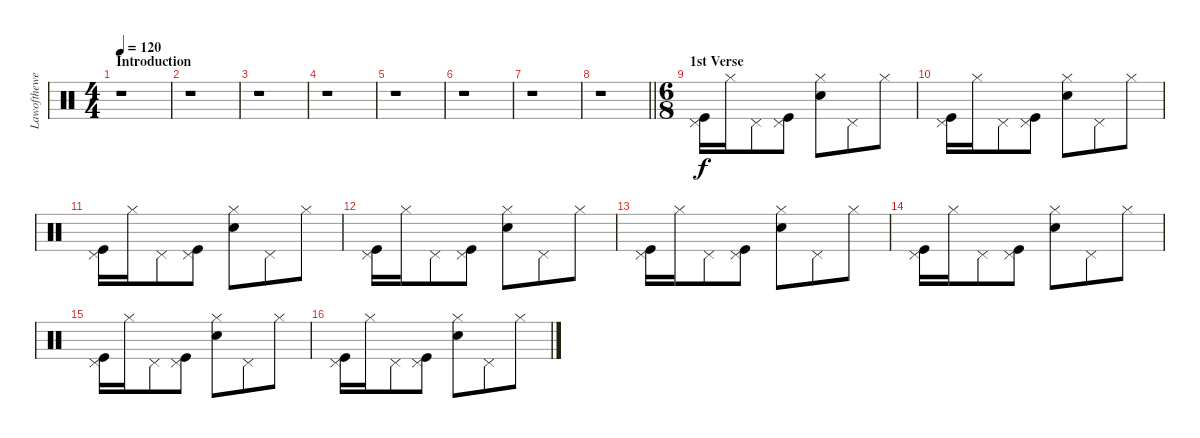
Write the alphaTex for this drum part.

\track ("Lawofthewest (drums)" "Lawofthewe") {instrument percussion}
\staff {score}
\articulation defaults
\ts (4 4)
\section ("" "Introduction")
\tempo 120
\clef neutral
\ks c
r.1{dy f} |
r.1 |
r.1 |
r.1 |
r.1 |
r.1 |
r.1 |
\barLineRight lightlight
r.1 |
\ts (6 8)
\section ("" "1st Verse")
("Pedal Hi-Hat (hit)" "Kick (hit)").16 "Hi-Hat (closed)".16 "Pedal Hi-Hat (hit)".8 ("Pedal Hi-Hat (hit)" "Kick (hit)").8 ("Hi-Hat (closed)" "Snare (hit) 2").8 "Pedal Hi-Hat (hit)".8 "Hi-Hat (closed)".8 |
("Pedal Hi-Hat (hit)" "Kick (hit)").16 "Hi-Hat (closed)".16 "Pedal Hi-Hat (hit)".8 ("Pedal Hi-Hat (hit)" "Kick (hit)").8 ("Hi-Hat (closed)" "Snare (hit) 2").8 "Pedal Hi-Hat (hit)".8 "Hi-Hat (closed)".8 |
("Pedal Hi-Hat (hit)" "Kick (hit)").16 "Hi-Hat (closed)".16 "Pedal Hi-Hat (hit)".8 ("Pedal Hi-Hat (hit)" "Kick (hit)").8 ("Hi-Hat (closed)" "Snare (hit) 2").8 "Pedal Hi-Hat (hit)".8 "Hi-Hat (closed)".8 |
("Pedal Hi-Hat (hit)" "Kick (hit)").16 "Hi-Hat (closed)".16 "Pedal Hi-Hat (hit)".8 ("Pedal Hi-Hat (hit)" "Kick (hit)").8 ("Hi-Hat (closed)" "Snare (hit) 2").8 "Pedal Hi-Hat (hit)".8 "Hi-Hat (closed)".8 |
("Pedal Hi-Hat (hit)" "Kick (hit)").16 "Hi-Hat (closed)".16 "Pedal Hi-Hat (hit)".8 ("Pedal Hi-Hat (hit)" "Kick (hit)").8 ("Hi-Hat (closed)" "Snare (hit) 2").8 "Pedal Hi-Hat (hit)".8 "Hi-Hat (closed)".8 |
("Pedal Hi-Hat (hit)" "Kick (hit)").16 "Hi-Hat (closed)".16 "Pedal Hi-Hat (hit)".8 ("Pedal Hi-Hat (hit)" "Kick (hit)").8 ("Hi-Hat (closed)" "Snare (hit) 2").8 "Pedal Hi-Hat (hit)".8 "Hi-Hat (closed)".8 |
("Pedal Hi-Hat (hit)" "Kick (hit)").16 "Hi-Hat (closed)".16 "Pedal Hi-Hat (hit)".8 ("Pedal Hi-Hat (hit)" "Kick (hit)").8 ("Hi-Hat (closed)" "Snare (hit) 2").8 "Pedal Hi-Hat (hit)".8 "Hi-Hat (closed)".8 |
("Pedal Hi-Hat (hit)" "Kick (hit)").16 "Hi-Hat (closed)".16 "Pedal Hi-Hat (hit)".8 ("Pedal Hi-Hat (hit)" "Kick (hit)").8 ("Hi-Hat (closed)" "Snare (hit) 2").8 "Pedal Hi-Hat (hit)".8 "Hi-Hat (closed)".8
